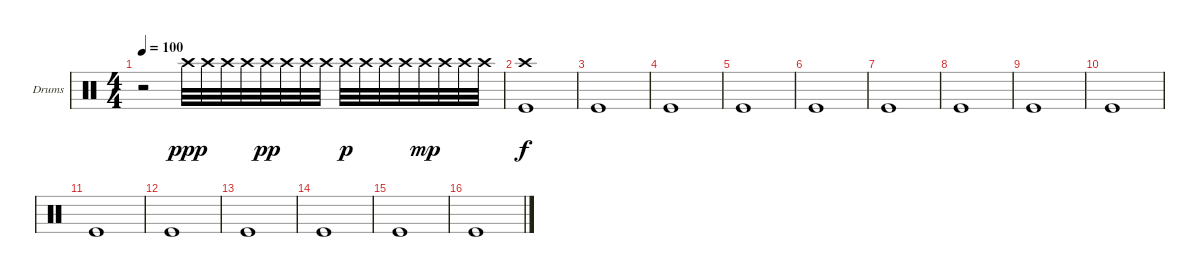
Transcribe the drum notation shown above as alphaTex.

\bracketExtendMode groupsimilarinstruments
\firstSystemTrackNameOrientation horizontal
\otherSystemsTrackNameOrientation horizontal
\track ("Drumkit (Christoph)" "Drums") {instrument percussion}
\staff {score}
\articulation defaults
\ts (4 4)
\tempo 100
\clef neutral
\ks c
r.2{dy f} "Crash high (hit)".32{dy ppp} "Crash high (hit)".32 "Crash high (hit)".32 "Crash high (hit)".32 "Crash high (hit)".32{dy pp} "Crash high (hit)".32 "Crash high (hit)".32 "Crash high (hit)".32 "Crash high (hit)".32{dy p} "Crash high (hit)".32 "Crash high (hit)".32 "Crash high (hit)".32 "Crash high (hit)".32{dy mp} "Crash high (hit)".32 "Crash high (hit)".32 "Crash high (hit)".32 |
("Crash high (hit)" "Kick (hit)").1{dy f} |
"Kick (hit)".1 |
"Kick (hit)".1 |
"Kick (hit)".1 |
"Kick (hit)".1 |
"Kick (hit)".1 |
"Kick (hit)".1 |
"Kick (hit)".1 |
"Kick (hit)".1 |
"Kick (hit)".1 |
"Kick (hit)".1 |
"Kick (hit)".1 |
"Kick (hit)".1 |
"Kick (hit)".1 |
"Kick (hit)".1
